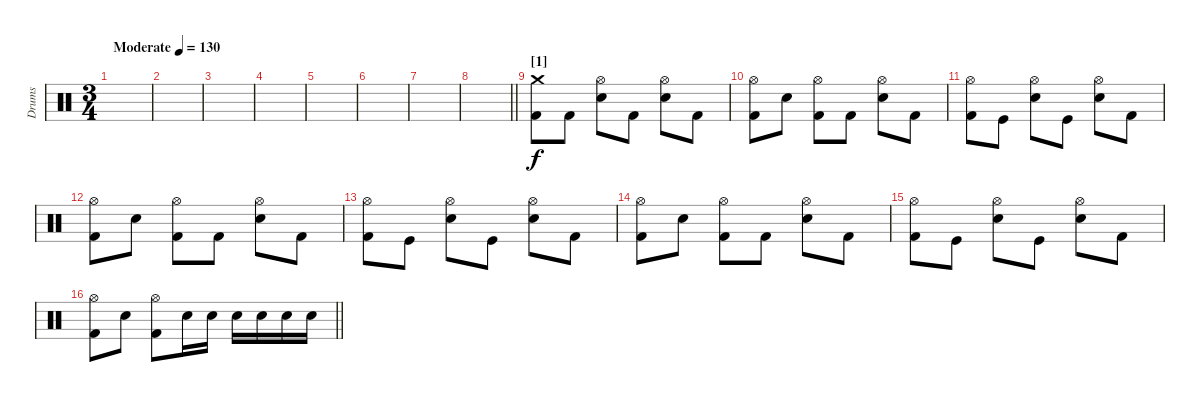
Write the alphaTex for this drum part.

\track ("Drums" "Drums") {instrument percussion}
\staff {score}
\articulation defaults
\ts (3 4)
\tempo (130 "Moderate")
\clef neutral
\ks c
|
|
|
|
|
|
|
\barLineRight lightlight
|
\section ("" "[1]")
("Crash medium (hit)" "Kick (hit) 2").8 "Kick (hit) 2".8{dy f} ("Hi-Hat (open)" "Electric Snare (hit)").8 "Kick (hit) 2".8 ("Hi-Hat (open)" "Electric Snare (hit)").8 "Kick (hit) 2".8 |
("Hi-Hat (open)" "Kick (hit) 2").8 "Electric Snare (hit)".8 ("Hi-Hat (open)" "Kick (hit) 2").8 "Kick (hit) 2".8 ("Hi-Hat (open)" "Electric Snare (hit)").8 "Kick (hit) 2".8 |
("Hi-Hat (open)" "Kick (hit) 2").8 "Kick (hit)".8 ("Hi-Hat (open)" "Electric Snare (hit)").8 "Kick (hit)".8 ("Hi-Hat (open)" "Electric Snare (hit)").8 "Kick (hit) 2".8 |
("Hi-Hat (open)" "Kick (hit) 2").8 "Electric Snare (hit)".8 ("Hi-Hat (open)" "Kick (hit) 2").8 "Kick (hit) 2".8 ("Hi-Hat (open)" "Electric Snare (hit)").8 "Kick (hit) 2".8 |
("Hi-Hat (open)" "Kick (hit) 2").8 "Kick (hit)".8 ("Hi-Hat (open)" "Electric Snare (hit)").8 "Kick (hit)".8 ("Hi-Hat (open)" "Electric Snare (hit)").8 "Kick (hit) 2".8 |
("Hi-Hat (open)" "Kick (hit) 2").8 "Electric Snare (hit)".8 ("Hi-Hat (open)" "Kick (hit) 2").8 "Kick (hit) 2".8 ("Hi-Hat (open)" "Electric Snare (hit)").8 "Kick (hit) 2".8 |
("Hi-Hat (open)" "Kick (hit) 2").8 "Kick (hit)".8 ("Hi-Hat (open)" "Electric Snare (hit)").8 "Kick (hit)".8 ("Hi-Hat (open)" "Electric Snare (hit)").8 "Kick (hit) 2".8 |
\barLineRight lightlight
("Hi-Hat (open)" "Kick (hit) 2").8 "Electric Snare (hit)".8 ("Hi-Hat (open)" "Kick (hit) 2").8 "Electric Snare (hit)".16 "Electric Snare (hit)".16 "Electric Snare (hit)".16 "Electric Snare (hit)".16 "Electric Snare (hit)".16 "Electric Snare (hit)".16
